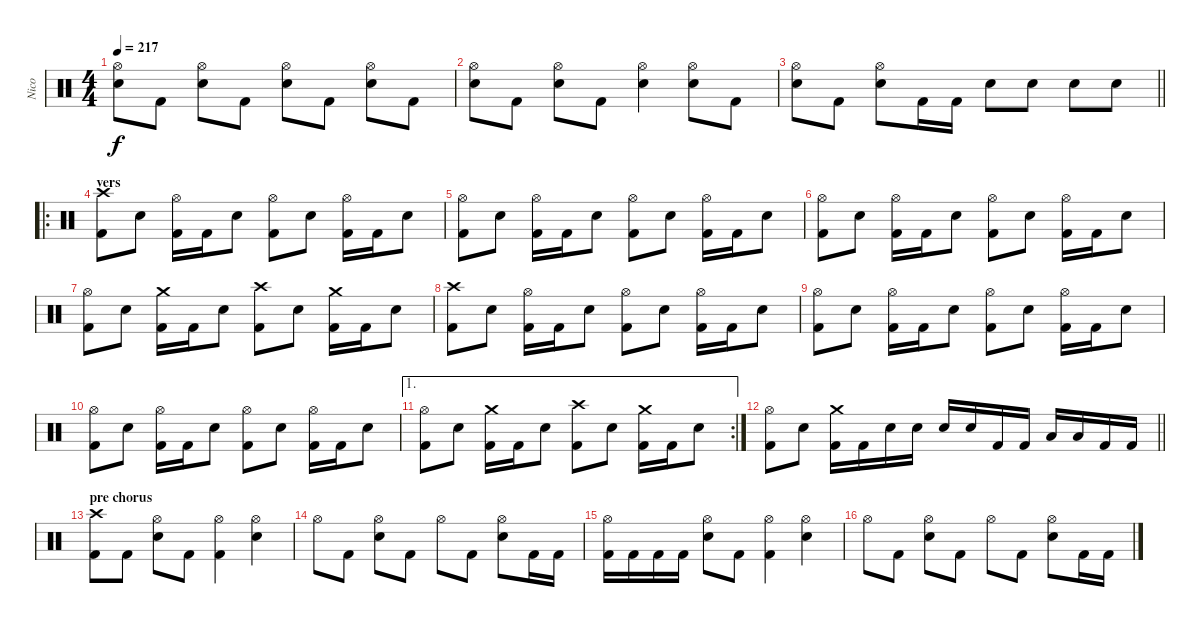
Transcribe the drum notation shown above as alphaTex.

\track ("Nico" "Nico") {instrument percussion}
\staff {score}
\articulation defaults
\ts (4 4)
\tempo 217
\clef neutral
\ks c
("Hi-Hat (open)" "Electric Snare (hit)").8{dy f} "Kick (hit) 2".8 ("Hi-Hat (open)" "Electric Snare (hit)").8 "Kick (hit) 2".8 ("Hi-Hat (open)" "Electric Snare (hit)").8 "Kick (hit) 2".8 ("Hi-Hat (open)" "Electric Snare (hit)").8 "Kick (hit) 2".8 |
("Hi-Hat (open)" "Electric Snare (hit)").8 "Kick (hit) 2".8 ("Hi-Hat (open)" "Electric Snare (hit)").8 "Kick (hit) 2".8 ("Hi-Hat (open)" "Electric Snare (hit)").4 ("Hi-Hat (open)" "Electric Snare (hit)").8 "Kick (hit) 2".8 |
\barLineRight lightlight
("Hi-Hat (open)" "Electric Snare (hit)").8 "Kick (hit) 2".8 ("Hi-Hat (open)" "Electric Snare (hit)").8 "Kick (hit) 2".16 "Kick (hit) 2".16 "Electric Snare (hit)".8 "Electric Snare (hit)".8 "Electric Snare (hit)".8 "Electric Snare (hit)".8 |
\ro
\section ("" "vers")
("Crash high (hit)" "Kick (hit) 2").8 "Electric Snare (hit)".8 ("Hi-Hat (open)" "Kick (hit) 2").16 "Kick (hit) 2".16 "Electric Snare (hit)".8 ("Hi-Hat (open)" "Kick (hit) 2").8 "Electric Snare (hit)".8 ("Hi-Hat (open)" "Kick (hit) 2").16 "Kick (hit) 2".16 "Electric Snare (hit)".8 |
("Hi-Hat (open)" "Kick (hit) 2").8 "Electric Snare (hit)".8 ("Hi-Hat (open)" "Kick (hit) 2").16 "Kick (hit) 2".16 "Electric Snare (hit)".8 ("Hi-Hat (open)" "Kick (hit) 2").8 "Electric Snare (hit)".8 ("Hi-Hat (open)" "Kick (hit) 2").16 "Kick (hit) 2".16 "Electric Snare (hit)".8 |
("Hi-Hat (open)" "Kick (hit) 2").8 "Electric Snare (hit)".8 ("Hi-Hat (open)" "Kick (hit) 2").16 "Kick (hit) 2".16 "Electric Snare (hit)".8 ("Hi-Hat (open)" "Kick (hit) 2").8 "Electric Snare (hit)".8 ("Hi-Hat (open)" "Kick (hit) 2").16 "Kick (hit) 2".16 "Electric Snare (hit)".8 |
("Hi-Hat (open)" "Kick (hit) 2").8 "Electric Snare (hit)".8 ("Crash medium (hit)" "Kick (hit) 2").16 "Kick (hit) 2".16 "Electric Snare (hit)".8 ("Crash high (hit)" "Kick (hit) 2").8 "Electric Snare (hit)".8 ("Crash medium (hit)" "Kick (hit) 2").16 "Kick (hit) 2".16 "Electric Snare (hit)".8 |
("Crash high (hit)" "Kick (hit) 2").8 "Electric Snare (hit)".8 ("Hi-Hat (open)" "Kick (hit) 2").16 "Kick (hit) 2".16 "Electric Snare (hit)".8 ("Hi-Hat (open)" "Kick (hit) 2").8 "Electric Snare (hit)".8 ("Hi-Hat (open)" "Kick (hit) 2").16 "Kick (hit) 2".16 "Electric Snare (hit)".8 |
("Hi-Hat (open)" "Kick (hit) 2").8 "Electric Snare (hit)".8 ("Hi-Hat (open)" "Kick (hit) 2").16 "Kick (hit) 2".16 "Electric Snare (hit)".8 ("Hi-Hat (open)" "Kick (hit) 2").8 "Electric Snare (hit)".8 ("Hi-Hat (open)" "Kick (hit) 2").16 "Kick (hit) 2".16 "Electric Snare (hit)".8 |
("Hi-Hat (open)" "Kick (hit) 2").8 "Electric Snare (hit)".8 ("Hi-Hat (open)" "Kick (hit) 2").16 "Kick (hit) 2".16 "Electric Snare (hit)".8 ("Hi-Hat (open)" "Kick (hit) 2").8 "Electric Snare (hit)".8 ("Hi-Hat (open)" "Kick (hit) 2").16 "Kick (hit) 2".16 "Electric Snare (hit)".8 |
\ae 1
\rc 2
("Hi-Hat (open)" "Kick (hit) 2").8 "Electric Snare (hit)".8 ("Crash medium (hit)" "Kick (hit) 2").16 "Kick (hit) 2".16 "Electric Snare (hit)".8 ("Crash high (hit)" "Kick (hit) 2").8 "Electric Snare (hit)".8 ("Crash medium (hit)" "Kick (hit) 2").16 "Kick (hit) 2".16 "Electric Snare (hit)".8 |
\barLineRight lightlight
("Hi-Hat (open)" "Kick (hit) 2").8 "Electric Snare (hit)".8 ("Crash medium (hit)" "Kick (hit) 2").16 "Kick (hit) 2".16 "Electric Snare (hit)".16 "Electric Snare (hit)".16 "Electric Snare (hit)".16 "Electric Snare (hit)".16 "Kick (hit) 2".16 "Kick (hit) 2".16 "Low Tom (hit)".16 "Low Tom (hit)".16 "Kick (hit) 2".16 "Kick (hit) 2".16 |
\section ("" "pre chorus")
("Crash high (hit)" "Kick (hit) 2").8{balance 8} "Kick (hit) 2".8 ("Hi-Hat (open)" "Electric Snare (hit)").8 "Kick (hit) 2".8 ("Hi-Hat (open)" "Kick (hit) 2").4 ("Hi-Hat (open)" "Electric Snare (hit)").4 |
"Hi-Hat (open)".8 "Kick (hit) 2".8 ("Hi-Hat (open)" "Electric Snare (hit)").8 "Kick (hit) 2".8 "Hi-Hat (open)".8 "Kick (hit) 2".8 ("Hi-Hat (open)" "Electric Snare (hit)").8 "Kick (hit) 2".16 "Kick (hit) 2".16 |
("Hi-Hat (open)" "Kick (hit) 2").16 "Kick (hit) 2".16 "Kick (hit) 2".16 "Kick (hit) 2".16 ("Hi-Hat (open)" "Electric Snare (hit)").8 "Kick (hit) 2".8 ("Hi-Hat (open)" "Kick (hit) 2").4 ("Hi-Hat (open)" "Electric Snare (hit)").4 |
"Hi-Hat (open)".8 "Kick (hit) 2".8 ("Hi-Hat (open)" "Electric Snare (hit)").8 "Kick (hit) 2".8 "Hi-Hat (open)".8 "Kick (hit) 2".8 ("Hi-Hat (open)" "Electric Snare (hit)").8 "Kick (hit) 2".16 "Kick (hit) 2".16
